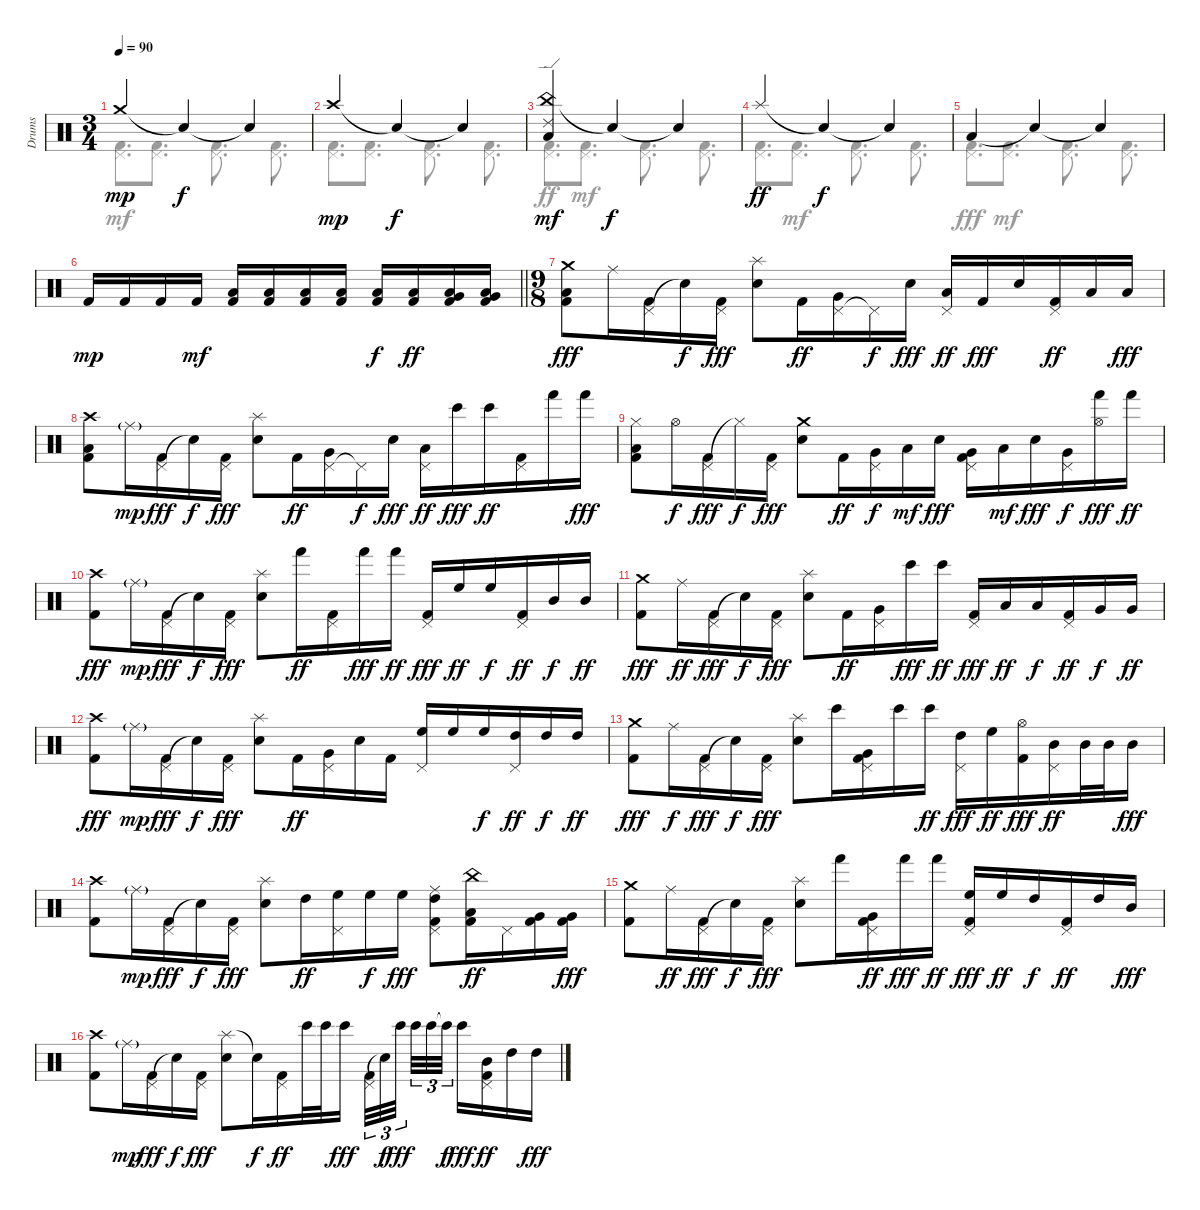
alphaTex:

\track ("Drums" "Drums") {instrument percussion}
\staff {score}
\articulation defaults
\voice
\ts (3 4)
\tempo 90
\clef neutral
\ks c "Crash medium (hit)".4{dy mp} "Snare (hit)"{t}.4{dy f} "Snare (hit)"{t}.4
|
"Crash high (hit)".4{dy mp} "Snare (hit)"{t}.4{dy f} "Snare (hit)"{t}.4 |
("China (hit)" "Ride (edge) 2" "Low Tom (hit)").4{dy mf} "Snare (hit)"{t}.4{dy f} "Snare (hit)"{t}.4 |
"Splash (hit)".4{dy ff} "Snare (hit)"{t}.4{dy f} "Snare (hit)"{t}.4 |
"Low Tom (hit)".4 "Snare (hit)"{t}.4 "Snare (hit)"{t}.4 |
\barLineRight lightlight "Kick (hit) 2".16{dy mp} "Kick (hit) 2".16 "Kick (hit) 2".16 "Kick (hit) 2".16{dy mf}
("Low Tom (hit)" "Kick (hit) 2").16 ("Low Tom (hit)" "Kick (hit) 2").16 ("Low Tom (hit)" "Kick (hit) 2").16 ("Low Tom (hit)" "Kick (hit) 2").16 ("Low Tom (hit)" "Kick (hit) 2").16{dy f} ("Low Tom (hit)" "Kick (hit) 2").16{dy ff} ("Low Tom (hit)" "Very Low Tom (hit)" "Kick (hit) 2").16 ("Low Tom (hit)" "Very Low Tom (hit)" "Kick (hit) 2").16 |
\ts (9 8)
\section ("" "")
("Crash medium (hit)" "Low Tom (hit)" "Kick (hit) 2").8{dy fff} "Ride (middle)".16 ("Pedal Hi-Hat (hit)" "Kick (hit) 2").16 "Snare (hit)"{t}.16{dy f} ("Pedal Hi-Hat (hit)" "Kick (hit) 2").16{dy fff} ("Splash (hit)" "Snare (hit) 2").8 "Kick (hit) 2".16{dy ff} ("Pedal Hi-Hat (hit)" "Very Low Tom (hit)").16 "Pedal Hi-Hat (hit)"{t}.16{dy f} "Snare (hit) 2".16{dy fff} ("Pedal Hi-Hat (hit)" "Low Tom (hit)").16{dy ff} "Kick (hit) 2".16{dy fff} "Snare (hit) 2".16 ("Pedal Hi-Hat (hit)" "Kick (hit) 2").16{dy ff} "Low Tom (hit)".16 "Low Tom (hit)".16{dy fff} |
("Crash high (hit)" "Low Tom (hit)" "Kick (hit) 2").8 "Ride (middle)"{g}.16{dy mp} ("Pedal Hi-Hat (hit)" "Kick (hit) 2").16{dy fff} "Snare (hit)"{t}.16{dy f} ("Pedal Hi-Hat (hit)" "Kick (hit) 2").16{dy fff} ("Splash (hit)" "Snare (hit) 2").8 "Kick (hit) 2".16{dy ff} ("Pedal Hi-Hat (hit)" "Very Low Tom (hit)").16 "Pedal Hi-Hat (hit)"{t}.16{dy f} "Snare (hit) 2".16{dy fff} ("Pedal Hi-Hat (hit)" "Low Tom (hit)").16{dy ff} "Bongo High (hit)".16{dy fff} "Bongo High (hit)".16{dy ff} ("Pedal Hi-Hat (hit)" "Kick (hit) 2").16 "Hand (hit)".16 "Hand (hit)".16{dy fff} |
("Hi-Hat (closed)" "Low Tom (hit)" "Kick (hit) 2").8 "Hi-Hat (open)".16{dy f} ("Pedal Hi-Hat (hit)" "Kick (hit) 2").16{dy fff} "Hi-Hat (closed)"{t}.16{dy f} ("Pedal Hi-Hat (hit)" "Kick (hit) 2").16{dy fff} ("Crash medium (hit)" "Snare (hit) 2").8 "Kick (hit) 2".16{dy ff} ("Pedal Hi-Hat (hit)" "Very Low Tom (hit)").16{dy f} "Low Tom (hit)".16{dy mf} "Snare (hit) 2".16{dy fff} ("Pedal Hi-Hat (hit)" "Very Low Tom (hit)" "Kick (hit) 2").16 "Low Tom (hit)".16{dy mf} "Snare (hit) 2".16{dy fff} ("Pedal Hi-Hat (hit)" "Very Low Tom (hit)").16{dy f} ("Hi-Hat (open)" "Hand (hit)").16{dy fff} "Hand (hit)".16{dy ff} |
("Crash high (hit)" "Kick (hit) 2").8{dy fff} "Ride (middle)"{g}.16{dy mp} ("Pedal Hi-Hat (hit)" "Kick (hit) 2").16{dy fff} "Snare (hit)"{t}.16{dy f} ("Pedal Hi-Hat (hit)" "Kick (hit) 2").16{dy fff} ("Splash (hit)" "Snare (hit) 2").8 "Hand (hit)".16{dy ff} ("Pedal Hi-Hat (hit)" "Kick (hit) 2").16 "Hand (hit)".16{dy fff} "Hand (hit)".16{dy ff} ("Pedal Hi-Hat (hit)" "Kick (hit) 2").16{dy fff} "High Floor Tom (hit)".16{dy ff} "High Floor Tom (hit)".16{dy f} ("Pedal Hi-Hat (hit)" "Kick (hit) 2").16{dy ff} "Mid Tom (hit)".16{dy f} "Mid Tom (hit)".16{dy ff} |
("Crash medium (hit)" "Kick (hit) 2").8{dy fff} "Ride (middle)".16{dy ff} ("Pedal Hi-Hat (hit)" "Kick (hit) 2").16{dy fff} "Snare (hit)"{t}.16{dy f} ("Pedal Hi-Hat (hit)" "Kick (hit) 2").16{dy fff} ("Splash (hit)" "Snare (hit) 2").8 "Kick (hit) 2".16{dy ff} ("Pedal Hi-Hat (hit)" "Very Low Tom (hit)").16 "Bongo High (hit)".16{dy fff} "Bongo High (hit)".16{dy ff} ("Pedal Hi-Hat (hit)" "Kick (hit) 2").16{dy fff} "Low Tom (hit)".16{dy ff} "Low Tom (hit)".16{dy f} ("Pedal Hi-Hat (hit)" "Kick (hit) 2").16{dy ff} "Very Low Tom (hit)".16{dy f} "Very Low Tom (hit)".16{dy ff} |
("Crash high (hit)" "Kick (hit) 2").8{dy fff} "Ride (middle)"{g}.16{dy mp} ("Pedal Hi-Hat (hit)" "Kick (hit) 2").16{dy fff} "Snare (hit)"{t}.16{dy f} ("Pedal Hi-Hat (hit)" "Kick (hit) 2").16{dy fff} ("Splash (hit)" "Snare (hit) 2").8 "Kick (hit) 2".16{dy ff} ("Pedal Hi-Hat (hit)" "Very Low Tom (hit)").16 "Snare (hit) 2".16 "Kick (hit) 2".16 ("Pedal Hi-Hat (hit)" "High Floor Tom (hit)").16 "High Floor Tom (hit)".16 "High Floor Tom (hit)".16{dy f} ("Pedal Hi-Hat (hit)" "High Tom (hit)").16{dy ff} "High Tom (hit)".16{dy f} "High Tom (hit)".16{dy ff} |
("Crash medium (hit)" "Kick (hit) 2").8{dy fff} "Ride (middle)".16{dy f} ("Pedal Hi-Hat (hit)" "Kick (hit) 2").16{dy fff} "Snare (hit)"{t}.16{dy f} ("Pedal Hi-Hat (hit)" "Kick (hit) 2").16{dy fff} ("Splash (hit)" "Snare (hit) 2").8 "Bongo High (hit)".16 ("Pedal Hi-Hat (hit)" "Very Low Tom (hit)" "Kick (hit) 2").16 "Bongo High (hit)".16 "Bongo High (hit)".16{dy ff} ("Pedal Hi-Hat (hit)" "High Tom (hit)").16{dy fff} "High Floor Tom (hit)".16{dy ff} ("Hi-Hat (open)" "Kick (hit) 2").16{dy fff} ("Pedal Hi-Hat (hit)" "Mid Tom (hit)").16{dy ff} "Mid Tom (hit)".32 "Mid Tom (hit)".32 "Mid Tom (hit)".16{dy fff} |
("Crash high (hit)" "Kick (hit) 2").8 "Ride (middle)"{g}.16{dy mp} ("Pedal Hi-Hat (hit)" "Kick (hit) 2").16{dy fff} "Snare (hit)"{t}.16{dy f} ("Pedal Hi-Hat (hit)" "Kick (hit) 2").16{dy fff} ("Splash (hit)" "Snare (hit) 2").8 "High Tom (hit)".16{dy ff} ("Pedal Hi-Hat (hit)" "High Floor Tom (hit)").16 "High Floor Tom (hit)".16{dy f} "High Floor Tom (hit)".16{dy fff} ("Ride (middle)" "Pedal Hi-Hat (hit)" "High Tom (hit)" "Kick (hit) 2").8 ("China (hit)" "Low Tom (hit)" "Kick (hit) 2").16{dy ff} "Pedal Hi-Hat (hit)".16 ("Very Low Tom (hit)" "Kick (hit) 2").16 ("Very Low Tom (hit)" "Kick (hit) 2").16{dy fff} |
("Crash medium (hit)" "Kick (hit) 2").8 "Ride (middle)".16{dy ff} ("Pedal Hi-Hat (hit)" "Kick (hit) 2").16{dy fff} "Snare (hit)"{t}.16{dy f} ("Pedal Hi-Hat (hit)" "Kick (hit) 2").16{dy fff} ("Splash (hit)" "Snare (hit) 2").8 "Hand (hit)".16 ("Pedal Hi-Hat (hit)" "Very Low Tom (hit)" "Kick (hit) 2").16{dy ff} "Hand (hit)".16{dy fff} "Hand (hit)".16{dy ff} ("Pedal Hi-Hat (hit)" "High Floor Tom (hit)" "Kick (hit) 2").16{dy fff} "High Floor Tom (hit)".16{dy ff} "High Tom (hit)".16{dy f} ("Pedal Hi-Hat (hit)" "Kick (hit) 2").16{dy ff} "High Tom (hit)".16 "Mid Tom (hit)".16{dy fff} |
("Crash high (hit)" "Kick (hit) 2").8 "Ride (middle)"{g}.16{dy mp} ("Pedal Hi-Hat (hit)" "Kick (hit) 2").16{dy fff} "Snare (hit)"{t}.16{dy f} ("Pedal Hi-Hat (hit)" "Kick (hit) 2").16{dy fff} ("Splash (hit)" "Snare (hit) 2").8 "Snare (hit)"{t}.16{dy f} ("Pedal Hi-Hat (hit)" "Kick (hit) 2").16{dy ff} "Bongo High (hit)".32 "Bongo High (hit)".32 "Bongo High (hit)".16{dy fff} ("Pedal Hi-Hat (hit)" "Kick (hit) 2").32{tu (3 2)} "Snare (hit)"{t}.32{tu (3 2) dy f} "Bongo High (hit)".32{tu (3 2) dy fff beam splitsecondary} "Bongo High (hit)".32{tu (3 2)} "Bongo High (hit)".32{tu (3 2)} "Bongo High (hit)"{t}.32{tu (3 2) dy f beam splitsecondary} "Bongo High (hit)".16{dy fff} ("Pedal Hi-Hat (hit)" "Mid Tom (hit)" "Kick (hit) 2").16{dy ff} "High Tom (hit)".16 "High Tom (hit)".16{dy fff}
\voice
\clef neutral
\ottava regular
\simile none
\ks c
("Pedal Hi-Hat (hit)" "Kick (hit) 2").8{d dy mf} ("Pedal Hi-Hat (hit)" "Kick (hit) 2").8{d} ("Pedal Hi-Hat (hit)" "Kick (hit) 2").8{d} ("Pedal Hi-Hat (hit)" "Kick (hit) 2").8{d} |
("Pedal Hi-Hat (hit)" "Kick (hit) 2").8{d} ("Pedal Hi-Hat (hit)" "Kick (hit) 2").8{d} ("Pedal Hi-Hat (hit)" "Kick (hit) 2").8{d} ("Pedal Hi-Hat (hit)" "Kick (hit) 2").8{d} |
("Pedal Hi-Hat (hit)" "Kick (hit) 2").8{d dy ff} ("Pedal Hi-Hat (hit)" "Kick (hit) 2").8{d dy mf} ("Pedal Hi-Hat (hit)" "Kick (hit) 2").8{d} ("Pedal Hi-Hat (hit)" "Kick (hit) 2").8{d} |
("Pedal Hi-Hat (hit)" "Kick (hit) 2").8{d dy ff} ("Pedal Hi-Hat (hit)" "Kick (hit) 2").8{d dy mf} ("Pedal Hi-Hat (hit)" "Kick (hit) 2").8{d} ("Pedal Hi-Hat (hit)" "Kick (hit) 2").8{d} |
("Pedal Hi-Hat (hit)" "Kick (hit) 2").8{d dy fff} ("Pedal Hi-Hat (hit)" "Kick (hit) 2").8{d dy mf} ("Pedal Hi-Hat (hit)" "Kick (hit) 2").8{d} ("Pedal Hi-Hat (hit)" "Kick (hit) 2").8{d} |
\barLineRight lightlight
|
|
|
|
|
|
|
|
|
|
